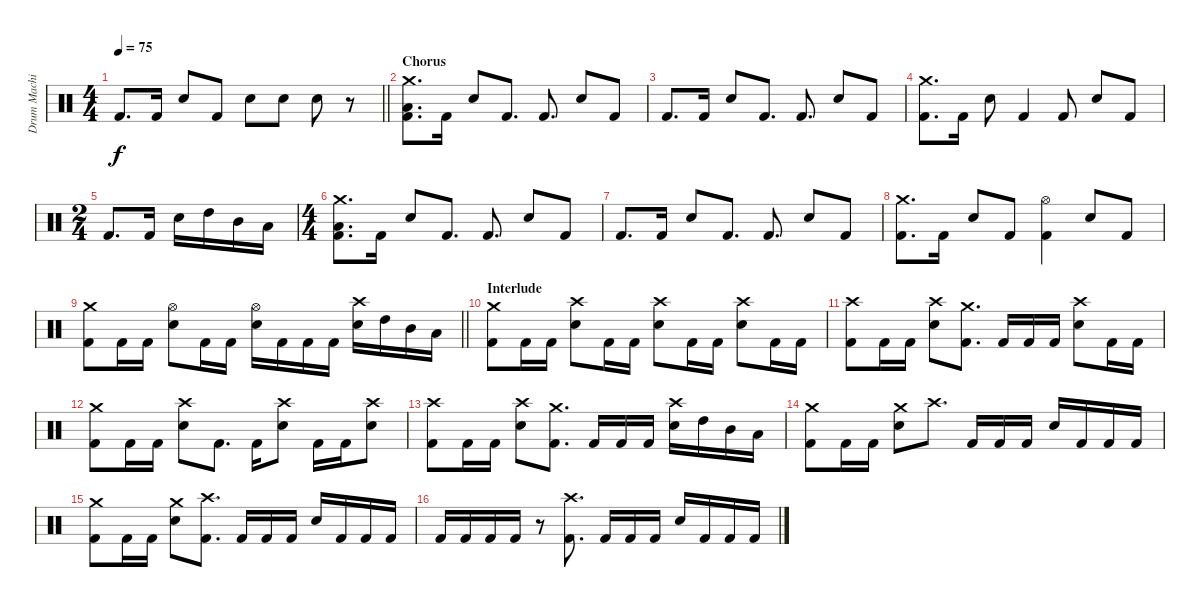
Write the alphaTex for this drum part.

\track ("Drum Machine" "Drum Machi") {mute instrument percussion}
\staff {score}
\articulation defaults
\ts (4 4)
\tempo 75
\clef neutral
\barLineRight lightlight
\ks c "Kick (hit) 2".8{d dy f} "Kick (hit) 2".16 "Electric Snare (hit)".8 "Kick (hit) 2".8 "Electric Snare (hit)".8 "Electric Snare (hit)".8 "Electric Snare (hit)".8
r.8 |
\section ("" "Chorus")
("Kick (hit) 2" "Low Floor Tom (hit)" "Crash medium (hit)").8{d} "Kick (hit) 2".16 "Electric Snare (hit)".8 "Kick (hit) 2".8{d} "Kick (hit) 2".8{d} "Electric Snare (hit)".8 "Kick (hit) 2".8 |
"Kick (hit) 2".8{d} "Kick (hit) 2".16 "Electric Snare (hit)".8 "Kick (hit) 2".8{d} "Kick (hit) 2".8{d} "Electric Snare (hit)".8 "Kick (hit) 2".8 |
("Kick (hit) 2" "Crash medium (hit)").8{d} "Kick (hit) 2".16 "Electric Snare (hit)".8 "Kick (hit) 2".4 "Kick (hit) 2".8 "Electric Snare (hit)".8 "Kick (hit) 2".8 |
\ts (2 4)
"Kick (hit) 2".8{d} "Kick (hit) 2".16 "Electric Snare (hit)".16 "High Tom (hit)".16 "Mid Tom (hit)".16 "Low Tom (hit)".16 |
\ts (4 4)
("Kick (hit) 2" "Low Floor Tom (hit)" "Crash medium (hit)").8{d} "Kick (hit) 2".16 "Electric Snare (hit)".8 "Kick (hit) 2".8{d} "Kick (hit) 2".8{d} "Electric Snare (hit)".8 "Kick (hit) 2".8 |
"Kick (hit) 2".8{d} "Kick (hit) 2".16 "Electric Snare (hit)".8 "Kick (hit) 2".8{d} "Kick (hit) 2".8{d} "Electric Snare (hit)".8 "Kick (hit) 2".8 |
("Kick (hit) 2" "Crash medium (hit)").8{d} "Kick (hit) 2".16 "Electric Snare (hit)".8 "Kick (hit) 2".8 ("Kick (hit) 2" "Hi-Hat (open)").4 "Electric Snare (hit)".8 "Kick (hit) 2".8 |
\barLineRight lightlight
("Kick (hit) 2" "Crash medium (hit)").8 "Kick (hit) 2".16 "Kick (hit) 2".16 ("Electric Snare (hit)" "Hi-Hat (open)").8 "Kick (hit) 2".16 "Kick (hit) 2".16 ("Electric Snare (hit)" "Hi-Hat (open)").16 "Kick (hit) 2".16 "Kick (hit) 2".16 "Kick (hit) 2".16 ("Electric Snare (hit)" "Crash high (hit)").16 "High Tom (hit)".16 "Mid Tom (hit)".16 "Low Tom (hit)".16 |
\section ("" "Interlude")
("Kick (hit) 2" "Crash medium (hit)").8 "Kick (hit) 2".16 "Kick (hit) 2".16 ("Electric Snare (hit)" "Crash high (hit)").8 "Kick (hit) 2".16 "Kick (hit) 2".16 ("Electric Snare (hit)" "Crash high (hit)").8 "Kick (hit) 2".16 "Kick (hit) 2".16 ("Electric Snare (hit)" "Crash high (hit)").8 "Kick (hit) 2".16 "Kick (hit) 2".16 |
("Kick (hit) 2" "Crash high (hit)").8 "Kick (hit) 2".16 "Kick (hit) 2".16 ("Electric Snare (hit)" "Crash high (hit)").8 ("Kick (hit) 2" "Crash medium (hit)").8{d} "Kick (hit) 2".16 "Kick (hit) 2".16 "Kick (hit) 2".16 ("Electric Snare (hit)" "Crash high (hit)").8 "Kick (hit) 2".16 "Kick (hit) 2".16 |
("Kick (hit) 2" "Crash medium (hit)").8 "Kick (hit) 2".16 "Kick (hit) 2".16 ("Electric Snare (hit)" "Crash high (hit)").8 "Kick (hit) 2".8{d} "Kick (hit) 2".16 ("Electric Snare (hit)" "Crash high (hit)").8 "Kick (hit) 2".16 "Kick (hit) 2".16 ("Electric Snare (hit)" "Crash high (hit)").8 |
("Kick (hit) 2" "Crash high (hit)").8 "Kick (hit) 2".16 "Kick (hit) 2".16 ("Electric Snare (hit)" "Crash high (hit)").8 ("Kick (hit) 2" "Crash medium (hit)").8{d} "Kick (hit) 2".16 "Kick (hit) 2".16 "Kick (hit) 2".16 ("Electric Snare (hit)" "Crash high (hit)").16 "High Tom (hit)".16 "Mid Tom (hit)".16 "Low Tom (hit)".16 |
("Kick (hit) 2" "Crash medium (hit)").8 "Kick (hit) 2".16 "Kick (hit) 2".16 ("Electric Snare (hit)" "Crash medium (hit)").8 "Crash high (hit)".8{d} "Kick (hit) 2".16 "Kick (hit) 2".16 "Kick (hit) 2".16 "Electric Snare (hit)".16 "Kick (hit) 2".16 "Kick (hit) 2".16 "Kick (hit) 2".16 |
("Kick (hit) 2" "Crash medium (hit)").8 "Kick (hit) 2".16 "Kick (hit) 2".16 ("Electric Snare (hit)" "Crash medium (hit)").8 ("Kick (hit) 2" "Crash high (hit)").8{d} "Kick (hit) 2".16 "Kick (hit) 2".16 "Kick (hit) 2".16 "Electric Snare (hit)".16 "Kick (hit) 2".16 "Kick (hit) 2".16 "Kick (hit) 2".16 |
"Kick (hit) 2".16 "Kick (hit) 2".16 "Kick (hit) 2".16 "Kick (hit) 2".16 r.8 ("Kick (hit) 2" "Crash high (hit)").8{d} "Kick (hit) 2".16 "Kick (hit) 2".16 "Kick (hit) 2".16 "Electric Snare (hit)".16 "Kick (hit) 2".16 "Kick (hit) 2".16 "Kick (hit) 2".16
